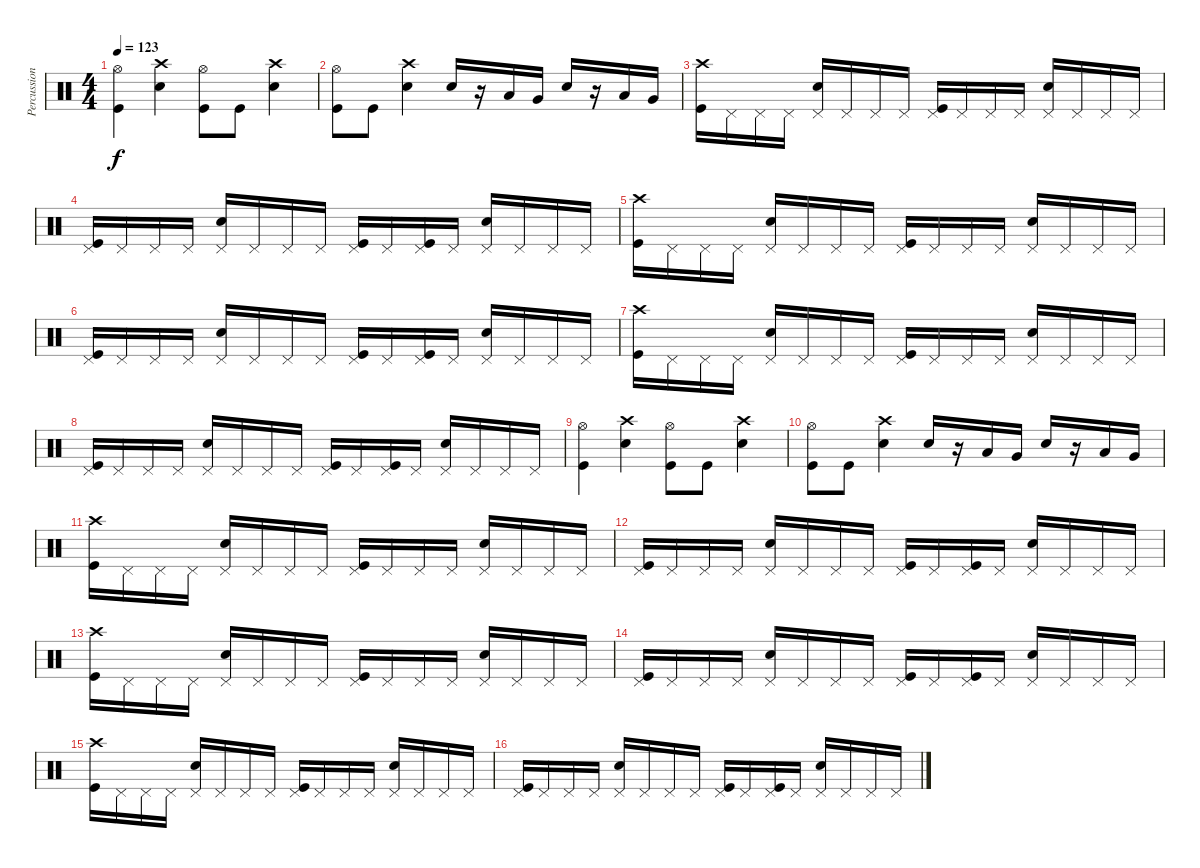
\track ("Percussion" "Percussion") {instrument percussion}
\staff {score}
\articulation defaults
\ts (4 4)
\tempo 123
\clef neutral
\ks c
("Hi-Hat (open)" "Kick (hit)").4{dy f} ("Crash high (hit)" "Snare (hit) 2").4 ("Hi-Hat (open)" "Kick (hit)").8 "Kick (hit)".8 ("Crash high (hit)" "Snare (hit) 2").4 |
("Hi-Hat (open)" "Kick (hit)").8 "Kick (hit)".8 ("Crash high (hit)" "Snare (hit) 2").4 "Snare (hit) 2".16 r.16 "Low Tom (hit)".16 "Very Low Tom (hit)".16 "Snare (hit) 2".16 r.16 "Low Tom (hit)".16 "Very Low Tom (hit)".16 |
("Crash high (hit)" "Kick (hit)").16 "Pedal Hi-Hat (hit)".16 "Pedal Hi-Hat (hit)".16 "Pedal Hi-Hat (hit)".16 ("Pedal Hi-Hat (hit)" "Snare (hit) 2").16 "Pedal Hi-Hat (hit)".16 "Pedal Hi-Hat (hit)".16 "Pedal Hi-Hat (hit)".16 ("Pedal Hi-Hat (hit)" "Kick (hit)").16 "Pedal Hi-Hat (hit)".16 "Pedal Hi-Hat (hit)".16 "Pedal Hi-Hat (hit)".16 ("Pedal Hi-Hat (hit)" "Snare (hit) 2").16 "Pedal Hi-Hat (hit)".16 "Pedal Hi-Hat (hit)".16 "Pedal Hi-Hat (hit)".16 |
("Pedal Hi-Hat (hit)" "Kick (hit)").16 "Pedal Hi-Hat (hit)".16 "Pedal Hi-Hat (hit)".16 "Pedal Hi-Hat (hit)".16 ("Pedal Hi-Hat (hit)" "Snare (hit) 2").16 "Pedal Hi-Hat (hit)".16 "Pedal Hi-Hat (hit)".16 "Pedal Hi-Hat (hit)".16 ("Pedal Hi-Hat (hit)" "Kick (hit)").16 "Pedal Hi-Hat (hit)".16 ("Pedal Hi-Hat (hit)" "Kick (hit)").16 "Pedal Hi-Hat (hit)".16 ("Pedal Hi-Hat (hit)" "Snare (hit) 2").16 "Pedal Hi-Hat (hit)".16 "Pedal Hi-Hat (hit)".16 "Pedal Hi-Hat (hit)".16 |
("Crash high (hit)" "Kick (hit)").16 "Pedal Hi-Hat (hit)".16 "Pedal Hi-Hat (hit)".16 "Pedal Hi-Hat (hit)".16 ("Pedal Hi-Hat (hit)" "Snare (hit) 2").16 "Pedal Hi-Hat (hit)".16 "Pedal Hi-Hat (hit)".16 "Pedal Hi-Hat (hit)".16 ("Pedal Hi-Hat (hit)" "Kick (hit)").16 "Pedal Hi-Hat (hit)".16 "Pedal Hi-Hat (hit)".16 "Pedal Hi-Hat (hit)".16 ("Pedal Hi-Hat (hit)" "Snare (hit) 2").16 "Pedal Hi-Hat (hit)".16 "Pedal Hi-Hat (hit)".16 "Pedal Hi-Hat (hit)".16 |
("Pedal Hi-Hat (hit)" "Kick (hit)").16 "Pedal Hi-Hat (hit)".16 "Pedal Hi-Hat (hit)".16 "Pedal Hi-Hat (hit)".16 ("Pedal Hi-Hat (hit)" "Snare (hit) 2").16 "Pedal Hi-Hat (hit)".16 "Pedal Hi-Hat (hit)".16 "Pedal Hi-Hat (hit)".16 ("Pedal Hi-Hat (hit)" "Kick (hit)").16 "Pedal Hi-Hat (hit)".16 ("Pedal Hi-Hat (hit)" "Kick (hit)").16 "Pedal Hi-Hat (hit)".16 ("Pedal Hi-Hat (hit)" "Snare (hit) 2").16 "Pedal Hi-Hat (hit)".16 "Pedal Hi-Hat (hit)".16 "Pedal Hi-Hat (hit)".16 |
("Crash high (hit)" "Kick (hit)").16 "Pedal Hi-Hat (hit)".16 "Pedal Hi-Hat (hit)".16 "Pedal Hi-Hat (hit)".16 ("Pedal Hi-Hat (hit)" "Snare (hit) 2").16 "Pedal Hi-Hat (hit)".16 "Pedal Hi-Hat (hit)".16 "Pedal Hi-Hat (hit)".16 ("Pedal Hi-Hat (hit)" "Kick (hit)").16 "Pedal Hi-Hat (hit)".16 "Pedal Hi-Hat (hit)".16 "Pedal Hi-Hat (hit)".16 ("Pedal Hi-Hat (hit)" "Snare (hit) 2").16 "Pedal Hi-Hat (hit)".16 "Pedal Hi-Hat (hit)".16 "Pedal Hi-Hat (hit)".16 |
("Pedal Hi-Hat (hit)" "Kick (hit)").16 "Pedal Hi-Hat (hit)".16 "Pedal Hi-Hat (hit)".16 "Pedal Hi-Hat (hit)".16 ("Pedal Hi-Hat (hit)" "Snare (hit) 2").16 "Pedal Hi-Hat (hit)".16 "Pedal Hi-Hat (hit)".16 "Pedal Hi-Hat (hit)".16 ("Pedal Hi-Hat (hit)" "Kick (hit)").16 "Pedal Hi-Hat (hit)".16 ("Pedal Hi-Hat (hit)" "Kick (hit)").16 "Pedal Hi-Hat (hit)".16 ("Pedal Hi-Hat (hit)" "Snare (hit) 2").16 "Pedal Hi-Hat (hit)".16 "Pedal Hi-Hat (hit)".16 "Pedal Hi-Hat (hit)".16 |
("Hi-Hat (open)" "Kick (hit)").4 ("Crash high (hit)" "Snare (hit) 2").4 ("Hi-Hat (open)" "Kick (hit)").8 "Kick (hit)".8 ("Crash high (hit)" "Snare (hit) 2").4 |
("Hi-Hat (open)" "Kick (hit)").8 "Kick (hit)".8 ("Crash high (hit)" "Snare (hit) 2").4 "Snare (hit) 2".16 r.16 "Low Tom (hit)".16 "Very Low Tom (hit)".16 "Snare (hit) 2".16 r.16 "Low Tom (hit)".16 "Very Low Tom (hit)".16 |
("Crash high (hit)" "Kick (hit)").16 "Pedal Hi-Hat (hit)".16 "Pedal Hi-Hat (hit)".16 "Pedal Hi-Hat (hit)".16 ("Pedal Hi-Hat (hit)" "Snare (hit) 2").16 "Pedal Hi-Hat (hit)".16 "Pedal Hi-Hat (hit)".16 "Pedal Hi-Hat (hit)".16 ("Pedal Hi-Hat (hit)" "Kick (hit)").16 "Pedal Hi-Hat (hit)".16 "Pedal Hi-Hat (hit)".16 "Pedal Hi-Hat (hit)".16 ("Pedal Hi-Hat (hit)" "Snare (hit) 2").16 "Pedal Hi-Hat (hit)".16 "Pedal Hi-Hat (hit)".16 "Pedal Hi-Hat (hit)".16 |
("Pedal Hi-Hat (hit)" "Kick (hit)").16 "Pedal Hi-Hat (hit)".16 "Pedal Hi-Hat (hit)".16 "Pedal Hi-Hat (hit)".16 ("Pedal Hi-Hat (hit)" "Snare (hit) 2").16 "Pedal Hi-Hat (hit)".16 "Pedal Hi-Hat (hit)".16 "Pedal Hi-Hat (hit)".16 ("Pedal Hi-Hat (hit)" "Kick (hit)").16 "Pedal Hi-Hat (hit)".16 ("Pedal Hi-Hat (hit)" "Kick (hit)").16 "Pedal Hi-Hat (hit)".16 ("Pedal Hi-Hat (hit)" "Snare (hit) 2").16 "Pedal Hi-Hat (hit)".16 "Pedal Hi-Hat (hit)".16 "Pedal Hi-Hat (hit)".16 |
("Crash high (hit)" "Kick (hit)").16 "Pedal Hi-Hat (hit)".16 "Pedal Hi-Hat (hit)".16 "Pedal Hi-Hat (hit)".16 ("Pedal Hi-Hat (hit)" "Snare (hit) 2").16 "Pedal Hi-Hat (hit)".16 "Pedal Hi-Hat (hit)".16 "Pedal Hi-Hat (hit)".16 ("Pedal Hi-Hat (hit)" "Kick (hit)").16 "Pedal Hi-Hat (hit)".16 "Pedal Hi-Hat (hit)".16 "Pedal Hi-Hat (hit)".16 ("Pedal Hi-Hat (hit)" "Snare (hit) 2").16 "Pedal Hi-Hat (hit)".16 "Pedal Hi-Hat (hit)".16 "Pedal Hi-Hat (hit)".16 |
("Pedal Hi-Hat (hit)" "Kick (hit)").16 "Pedal Hi-Hat (hit)".16 "Pedal Hi-Hat (hit)".16 "Pedal Hi-Hat (hit)".16 ("Pedal Hi-Hat (hit)" "Snare (hit) 2").16 "Pedal Hi-Hat (hit)".16 "Pedal Hi-Hat (hit)".16 "Pedal Hi-Hat (hit)".16 ("Pedal Hi-Hat (hit)" "Kick (hit)").16 "Pedal Hi-Hat (hit)".16 ("Pedal Hi-Hat (hit)" "Kick (hit)").16 "Pedal Hi-Hat (hit)".16 ("Pedal Hi-Hat (hit)" "Snare (hit) 2").16 "Pedal Hi-Hat (hit)".16 "Pedal Hi-Hat (hit)".16 "Pedal Hi-Hat (hit)".16 |
("Crash high (hit)" "Kick (hit)").16 "Pedal Hi-Hat (hit)".16 "Pedal Hi-Hat (hit)".16 "Pedal Hi-Hat (hit)".16 ("Pedal Hi-Hat (hit)" "Snare (hit) 2").16 "Pedal Hi-Hat (hit)".16 "Pedal Hi-Hat (hit)".16 "Pedal Hi-Hat (hit)".16 ("Pedal Hi-Hat (hit)" "Kick (hit)").16 "Pedal Hi-Hat (hit)".16 "Pedal Hi-Hat (hit)".16 "Pedal Hi-Hat (hit)".16 ("Pedal Hi-Hat (hit)" "Snare (hit) 2").16 "Pedal Hi-Hat (hit)".16 "Pedal Hi-Hat (hit)".16 "Pedal Hi-Hat (hit)".16 |
("Pedal Hi-Hat (hit)" "Kick (hit)").16 "Pedal Hi-Hat (hit)".16 "Pedal Hi-Hat (hit)".16 "Pedal Hi-Hat (hit)".16 ("Pedal Hi-Hat (hit)" "Snare (hit) 2").16 "Pedal Hi-Hat (hit)".16 "Pedal Hi-Hat (hit)".16 "Pedal Hi-Hat (hit)".16 ("Pedal Hi-Hat (hit)" "Kick (hit)").16 "Pedal Hi-Hat (hit)".16 ("Pedal Hi-Hat (hit)" "Kick (hit)").16 "Pedal Hi-Hat (hit)".16 ("Pedal Hi-Hat (hit)" "Snare (hit) 2").16 "Pedal Hi-Hat (hit)".16 "Pedal Hi-Hat (hit)".16 "Pedal Hi-Hat (hit)".16
